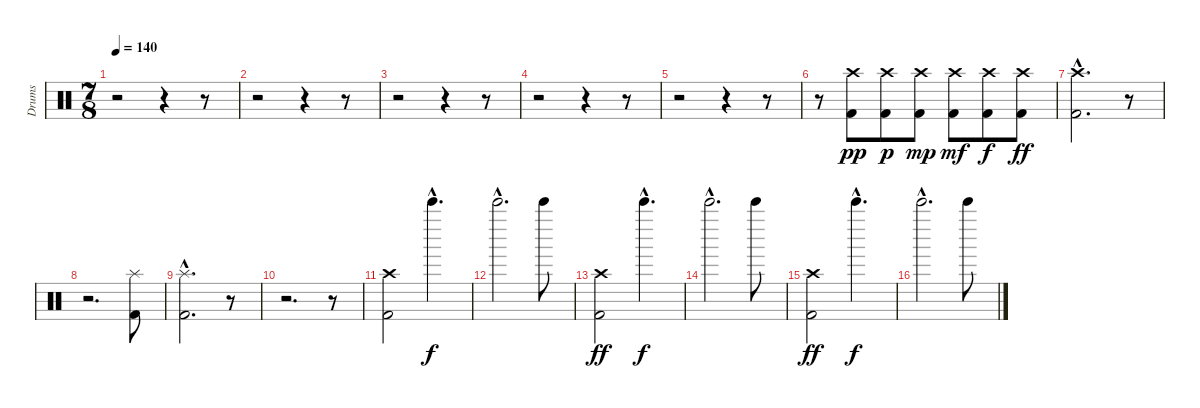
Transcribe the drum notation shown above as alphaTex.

\track ("Drums" "Drums") {instrument percussion}
\staff {score}
\articulation defaults
\ts (7 8)
\tempo 140
\tempo 124
\tempo 140
\clef neutral
\ks c
r.2{dy pp} r.4 r.8 |
r.2 r.4 r.8 |
r.2 r.4 r.8 |
r.2 r.4 r.8 |
r.2 r.4 r.8 |
r.8 ("Crash high (hit)" "Kick (hit) 2").8 ("Crash high (hit)" "Kick (hit) 2").8{dy p} ("Crash high (hit)" "Kick (hit) 2").8{dy mp} ("Crash high (hit)" "Kick (hit) 2").8{dy mf} ("Crash high (hit)" "Kick (hit) 2").8{dy f} ("Crash high (hit)" "Kick (hit) 2").8{dy ff} |
("Crash high (hit)"{hac} "Kick (hit) 2"{hac}).2{d} r.8 |
r.2{d} ("Splash (hit)" "Kick (hit) 2").8 |
("Splash (hit)"{hac} "Kick (hit) 2"{hac}).2{d} r.8 |
r.2{d} r.8 |
("Crash high (hit)" "Kick (hit) 2").2 "Bell Tree (hit)"{hac}.4{d dy f} |
"Bell Tree (hit)"{hac}.2{d} "Bell Tree (hit)".8 |
("Crash high (hit)" "Kick (hit) 2").2{dy ff} "Bell Tree (hit)"{hac}.4{d dy f} |
"Bell Tree (hit)"{hac}.2{d} "Bell Tree (hit)".8 |
("Crash high (hit)" "Kick (hit) 2").2{dy ff} "Bell Tree (hit)"{hac}.4{d dy f} |
"Bell Tree (hit)"{hac}.2{d} "Bell Tree (hit)".8
